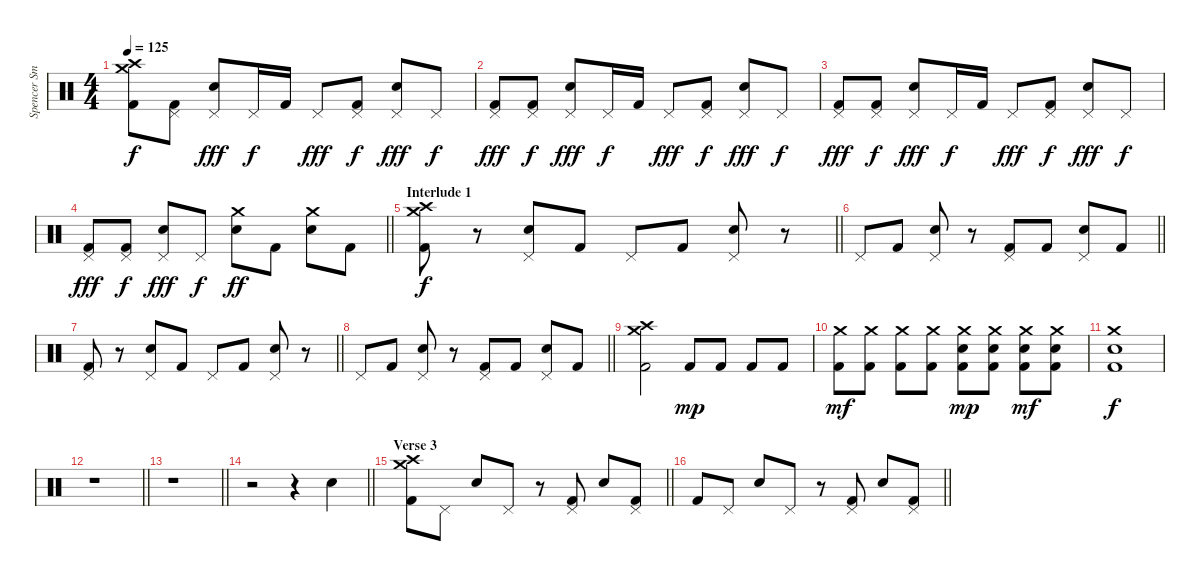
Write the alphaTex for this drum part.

\track ("Spencer Smith (Drums)" "Spencer Sm") {instrument percussion}
\staff {score}
\articulation defaults
\ts (4 4)
\tempo 125
\clef neutral
\ks c
("Crash high (hit)" "Crash medium (hit)" "Kick (hit) 2").8{dy f} ("Pedal Hi-Hat (hit)" "Kick (hit) 2").8 ("Pedal Hi-Hat (hit)" "Electric Snare (hit)").8{dy fff} "Pedal Hi-Hat (hit)".16{dy f} "Kick (hit) 2".16 "Pedal Hi-Hat (hit)".8{dy fff} ("Pedal Hi-Hat (hit)" "Kick (hit) 2").8{dy f} ("Pedal Hi-Hat (hit)" "Electric Snare (hit)").8{dy fff} "Pedal Hi-Hat (hit)".8{dy f} |
("Pedal Hi-Hat (hit)" "Kick (hit) 2").8{dy fff} ("Pedal Hi-Hat (hit)" "Kick (hit) 2").8{dy f} ("Pedal Hi-Hat (hit)" "Electric Snare (hit)").8{dy fff} "Pedal Hi-Hat (hit)".16{dy f} "Kick (hit) 2".16 "Pedal Hi-Hat (hit)".8{dy fff} ("Pedal Hi-Hat (hit)" "Kick (hit) 2").8{dy f} ("Pedal Hi-Hat (hit)" "Electric Snare (hit)").8{dy fff} "Pedal Hi-Hat (hit)".8{dy f} |
("Pedal Hi-Hat (hit)" "Kick (hit) 2").8{dy fff} ("Pedal Hi-Hat (hit)" "Kick (hit) 2").8{dy f} ("Pedal Hi-Hat (hit)" "Electric Snare (hit)").8{dy fff} "Pedal Hi-Hat (hit)".16{dy f} "Kick (hit) 2".16 "Pedal Hi-Hat (hit)".8{dy fff} ("Pedal Hi-Hat (hit)" "Kick (hit) 2").8{dy f} ("Pedal Hi-Hat (hit)" "Electric Snare (hit)").8{dy fff} "Pedal Hi-Hat (hit)".8{dy f} |
\barLineRight lightlight
("Pedal Hi-Hat (hit)" "Kick (hit) 2").8{dy fff} ("Pedal Hi-Hat (hit)" "Kick (hit) 2").8{dy f} ("Pedal Hi-Hat (hit)" "Electric Snare (hit)").8{dy fff} "Pedal Hi-Hat (hit)".8{dy f} ("Crash medium (hit)" "Electric Snare (hit)").8{dy ff} "Kick (hit) 2".8 ("Crash medium (hit)" "Electric Snare (hit)").8 "Kick (hit) 2".8 |
\section ("" "Interlude 1")
\barLineRight lightlight
("Crash high (hit)" "Crash medium (hit)" "Kick (hit) 2").8{dy f} r.8 ("Pedal Hi-Hat (hit)" "Electric Snare (hit)").8 "Kick (hit) 2".8 "Pedal Hi-Hat (hit)".8 "Kick (hit) 2".8 ("Pedal Hi-Hat (hit)" "Electric Snare (hit)").8 r.8 |
\barLineRight lightlight "Pedal Hi-Hat (hit)".8 "Kick (hit) 2".8
("Pedal Hi-Hat (hit)" "Electric Snare (hit)").8 r.8 ("Pedal Hi-Hat (hit)" "Kick (hit) 2").8 "Kick (hit) 2".8 ("Pedal Hi-Hat (hit)" "Electric Snare (hit)").8 "Kick (hit) 2".8 |
\barLineRight lightlight
("Pedal Hi-Hat (hit)" "Kick (hit) 2").8 r.8 ("Pedal Hi-Hat (hit)" "Electric Snare (hit)").8 "Kick (hit) 2".8 "Pedal Hi-Hat (hit)".8 "Kick (hit) 2".8 ("Pedal Hi-Hat (hit)" "Electric Snare (hit)").8 r.8 |
\barLineRight lightlight "Pedal Hi-Hat (hit)".8 "Kick (hit) 2".8
("Pedal Hi-Hat (hit)" "Electric Snare (hit)").8 r.8 ("Pedal Hi-Hat (hit)" "Kick (hit) 2").8 "Kick (hit) 2".8 ("Pedal Hi-Hat (hit)" "Electric Snare (hit)").8 "Kick (hit) 2".8 |
("Crash medium (hit)" "Crash high (hit)" "Kick (hit) 2").2 "Kick (hit) 2".8{dy mp} "Kick (hit) 2".8 "Kick (hit) 2".8 "Kick (hit) 2".8 |
("Crash medium (hit)" "Kick (hit) 2").8{dy mf} ("Crash medium (hit)" "Kick (hit) 2").8 ("Crash medium (hit)" "Kick (hit) 2").8 ("Crash medium (hit)" "Kick (hit) 2").8 ("Crash medium (hit)" "Electric Snare (hit)" "Kick (hit) 2").8{dy mp} ("Crash medium (hit)" "Electric Snare (hit)" "Kick (hit) 2").8 ("Crash medium (hit)" "Electric Snare (hit)" "Kick (hit) 2").8{dy mf} ("Crash medium (hit)" "Electric Snare (hit)" "Kick (hit) 2").8 |
("Crash medium (hit)" "Electric Snare (hit)" "Kick (hit) 2").1{dy f} |
\barLineRight lightlight
r.1 |
\barLineRight lightlight
r.1 |
\barLineRight lightlight
r.2 r.4 "Electric Snare (hit)".4 |
\section ("" "Verse 3")
\barLineRight lightlight
("Crash high (hit)" "Crash medium (hit)" "Kick (hit) 2").8 "Pedal Hi-Hat (hit)".8 "Electric Snare (hit)".8 "Pedal Hi-Hat (hit)".8 r.8 ("Pedal Hi-Hat (hit)" "Kick (hit) 2").8 "Electric Snare (hit)".8 ("Pedal Hi-Hat (hit)" "Kick (hit) 2").8 |
\barLineRight lightlight "Kick (hit) 2".8 "Pedal Hi-Hat (hit)".8 "Electric Snare (hit)".8 "Pedal Hi-Hat (hit)".8
r.8 ("Pedal Hi-Hat (hit)" "Kick (hit) 2").8 "Electric Snare (hit)".8 ("Pedal Hi-Hat (hit)" "Kick (hit) 2").8
